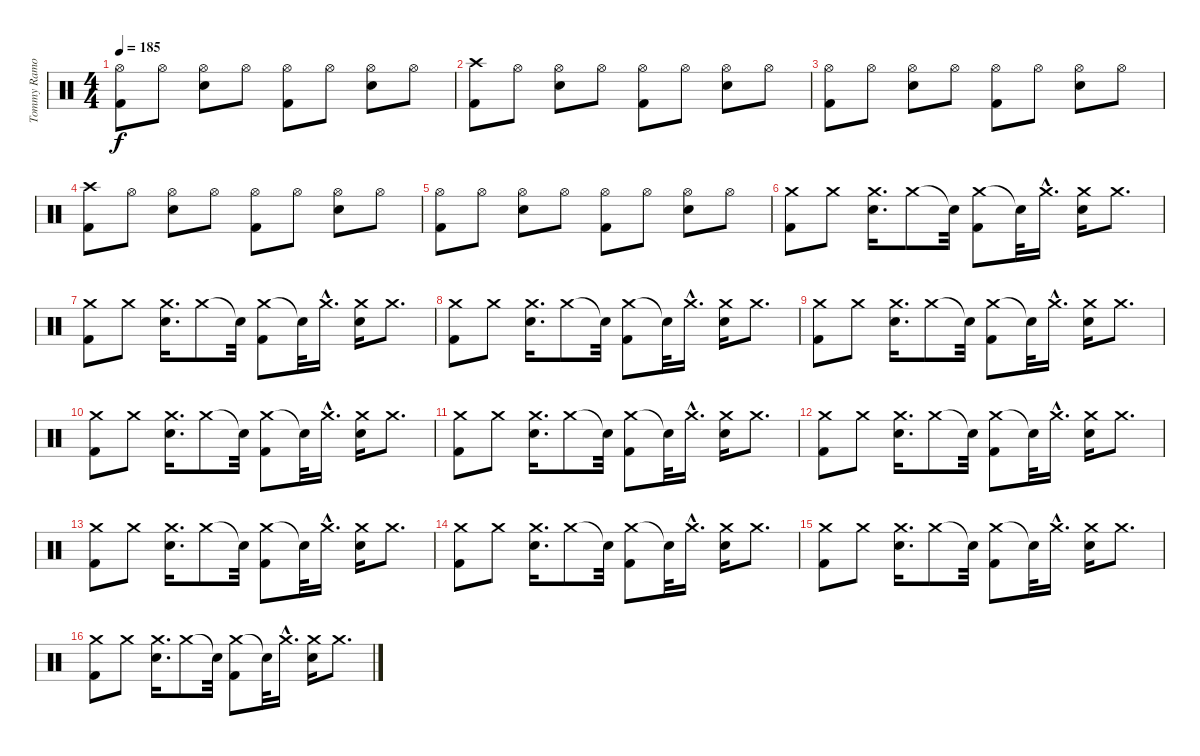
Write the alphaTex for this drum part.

\track ("Tommy Ramone" "Tommy Ramo") {instrument percussion}
\staff {score}
\articulation defaults
\ts (4 4)
\tempo 185
\clef neutral
\ks c
("Hi-Hat (open)" "Kick (hit) 2").8{dy f} "Hi-Hat (open)".8 ("Snare (hit) 2" "Hi-Hat (open)").8 "Hi-Hat (open)".8 ("Kick (hit) 2" "Hi-Hat (open)").8 "Hi-Hat (open)".8 ("Snare (hit) 2" "Hi-Hat (open)").8 "Hi-Hat (open)".8 |
("Crash high (hit)" "Kick (hit) 2").8 "Hi-Hat (open)".8 ("Snare (hit) 2" "Hi-Hat (open)").8 "Hi-Hat (open)".8 ("Kick (hit) 2" "Hi-Hat (open)").8 "Hi-Hat (open)".8 ("Snare (hit) 2" "Hi-Hat (open)").8 "Hi-Hat (open)".8 |
("Hi-Hat (open)" "Kick (hit) 2").8 "Hi-Hat (open)".8 ("Snare (hit) 2" "Hi-Hat (open)").8 "Hi-Hat (open)".8 ("Kick (hit) 2" "Hi-Hat (open)").8 "Hi-Hat (open)".8 ("Snare (hit) 2" "Hi-Hat (open)").8 "Hi-Hat (open)".8 |
("Crash high (hit)" "Kick (hit) 2").8 "Hi-Hat (open)".8 ("Snare (hit) 2" "Hi-Hat (open)").8 "Hi-Hat (open)".8 ("Kick (hit) 2" "Hi-Hat (open)").8 "Hi-Hat (open)".8 ("Snare (hit) 2" "Hi-Hat (open)").8 "Hi-Hat (open)".8 |
("Hi-Hat (open)" "Kick (hit) 2").8 "Hi-Hat (open)".8 ("Snare (hit) 2" "Hi-Hat (open)").8 "Hi-Hat (open)".8 ("Kick (hit) 2" "Hi-Hat (open)").8 "Hi-Hat (open)".8 ("Snare (hit) 2" "Hi-Hat (open)").8 "Hi-Hat (open)".8 |
("Crash medium (hit)" "Kick (hit) 2").8 "Crash medium (hit)".8 ("Crash medium (hit)" "Snare (hit) 2").16{d} "Crash medium (hit)".8 "Snare (hit)"{t}.32 ("Crash medium (hit)" "Kick (hit) 2").8 "Snare (hit)"{t}.32 "Crash medium (hit)"{hac}.16{d} ("Crash medium (hit)" "Snare (hit) 2").16 "Crash medium (hit)".8{d} |
("Crash medium (hit)" "Kick (hit) 2").8 "Crash medium (hit)".8 ("Crash medium (hit)" "Snare (hit) 2").16{d} "Crash medium (hit)".8 "Snare (hit)"{t}.32 ("Crash medium (hit)" "Kick (hit) 2").8 "Snare (hit)"{t}.32 "Crash medium (hit)"{hac}.16{d} ("Crash medium (hit)" "Snare (hit) 2").16 "Crash medium (hit)".8{d} |
("Crash medium (hit)" "Kick (hit) 2").8 "Crash medium (hit)".8 ("Crash medium (hit)" "Snare (hit) 2").16{d} "Crash medium (hit)".8 "Snare (hit)"{t}.32 ("Crash medium (hit)" "Kick (hit) 2").8 "Snare (hit)"{t}.32 "Crash medium (hit)"{hac}.16{d} ("Crash medium (hit)" "Snare (hit) 2").16 "Crash medium (hit)".8{d} |
("Crash medium (hit)" "Kick (hit) 2").8 "Crash medium (hit)".8 ("Crash medium (hit)" "Snare (hit) 2").16{d} "Crash medium (hit)".8 "Snare (hit)"{t}.32 ("Crash medium (hit)" "Kick (hit) 2").8 "Snare (hit)"{t}.32 "Crash medium (hit)"{hac}.16{d} ("Crash medium (hit)" "Snare (hit) 2").16 "Crash medium (hit)".8{d} |
("Crash medium (hit)" "Kick (hit) 2").8 "Crash medium (hit)".8 ("Crash medium (hit)" "Snare (hit) 2").16{d} "Crash medium (hit)".8 "Snare (hit)"{t}.32 ("Crash medium (hit)" "Kick (hit) 2").8 "Snare (hit)"{t}.32 "Crash medium (hit)"{hac}.16{d} ("Crash medium (hit)" "Snare (hit) 2").16 "Crash medium (hit)".8{d} |
("Crash medium (hit)" "Kick (hit) 2").8 "Crash medium (hit)".8 ("Crash medium (hit)" "Snare (hit) 2").16{d} "Crash medium (hit)".8 "Snare (hit)"{t}.32 ("Crash medium (hit)" "Kick (hit) 2").8 "Snare (hit)"{t}.32 "Crash medium (hit)"{hac}.16{d} ("Crash medium (hit)" "Snare (hit) 2").16 "Crash medium (hit)".8{d} |
("Crash medium (hit)" "Kick (hit) 2").8 "Crash medium (hit)".8 ("Crash medium (hit)" "Snare (hit) 2").16{d} "Crash medium (hit)".8 "Snare (hit)"{t}.32 ("Crash medium (hit)" "Kick (hit) 2").8 "Snare (hit)"{t}.32 "Crash medium (hit)"{hac}.16{d} ("Crash medium (hit)" "Snare (hit) 2").16 "Crash medium (hit)".8{d} |
("Crash medium (hit)" "Kick (hit) 2").8 "Crash medium (hit)".8 ("Crash medium (hit)" "Snare (hit) 2").16{d} "Crash medium (hit)".8 "Snare (hit)"{t}.32 ("Crash medium (hit)" "Kick (hit) 2").8 "Snare (hit)"{t}.32 "Crash medium (hit)"{hac}.16{d} ("Crash medium (hit)" "Snare (hit) 2").16 "Crash medium (hit)".8{d} |
("Crash medium (hit)" "Kick (hit) 2").8 "Crash medium (hit)".8 ("Crash medium (hit)" "Snare (hit) 2").16{d} "Crash medium (hit)".8 "Snare (hit)"{t}.32 ("Crash medium (hit)" "Kick (hit) 2").8 "Snare (hit)"{t}.32 "Crash medium (hit)"{hac}.16{d} ("Crash medium (hit)" "Snare (hit) 2").16 "Crash medium (hit)".8{d} |
("Crash medium (hit)" "Kick (hit) 2").8 "Crash medium (hit)".8 ("Crash medium (hit)" "Snare (hit) 2").16{d} "Crash medium (hit)".8 "Snare (hit)"{t}.32 ("Crash medium (hit)" "Kick (hit) 2").8 "Snare (hit)"{t}.32 "Crash medium (hit)"{hac}.16{d} ("Crash medium (hit)" "Snare (hit) 2").16 "Crash medium (hit)".8{d} |
("Crash medium (hit)" "Kick (hit) 2").8 "Crash medium (hit)".8 ("Crash medium (hit)" "Snare (hit) 2").16{d} "Crash medium (hit)".8 "Snare (hit)"{t}.32 ("Crash medium (hit)" "Kick (hit) 2").8 "Snare (hit)"{t}.32 "Crash medium (hit)"{hac}.16{d} ("Crash medium (hit)" "Snare (hit) 2").16 "Crash medium (hit)".8{d}
